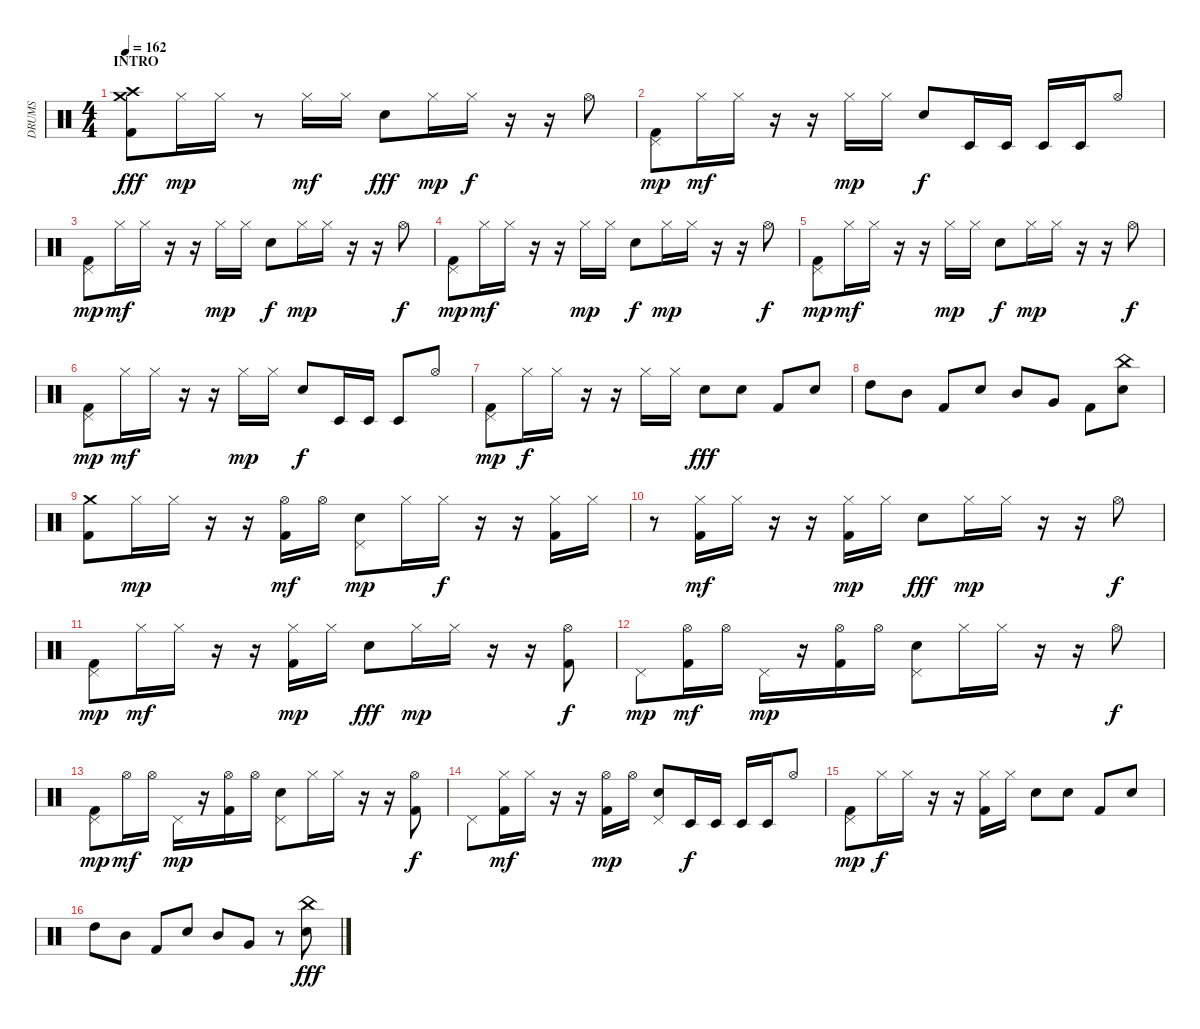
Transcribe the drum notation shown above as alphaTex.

\track ("DRUMS" "DRUMS") {instrument percussion}
\staff {score}
\articulation defaults
\ts (4 4)
\section ("" "INTRO")
\tempo 162
\clef neutral
\ks c
("Crash medium (hit)" "Crash high (hit)" "Kick (hit) 2").8{dy fff} "Hi-Hat (closed)".16{dy mp} "Hi-Hat (closed)".16 r.8 "Hi-Hat (closed)".16{dy mf} "Hi-Hat (closed)".16 "Electric Snare (hit)".8{dy fff} "Hi-Hat (closed)".16{dy mp} "Hi-Hat (closed)".16{dy f} r.16 r.16 "Hi-Hat (open)".8 |
("Pedal Hi-Hat (hit)" "Kick (hit) 2").8{dy mp} "Hi-Hat (closed)".16{dy mf} "Hi-Hat (closed)".16 r.16 r.16 "Hi-Hat (closed)".16{dy mp} "Hi-Hat (closed)".16 "Electric Snare (hit)".8{dy f} "Timbale low (hit)".16 "Timbale low (hit)".16 "Timbale low (hit)".16 "Timbale low (hit)".16 "Hi-Hat (open)".8 |
("Pedal Hi-Hat (hit)" "Kick (hit) 2").8{dy mp} "Hi-Hat (closed)".16{dy mf} "Hi-Hat (closed)".16 r.16 r.16 "Hi-Hat (closed)".16{dy mp} "Hi-Hat (closed)".16 "Electric Snare (hit)".8{dy f} "Hi-Hat (closed)".16{dy mp} "Hi-Hat (closed)".16 r.16 r.16 "Hi-Hat (open)".8{dy f} |
("Pedal Hi-Hat (hit)" "Kick (hit) 2").8{dy mp} "Hi-Hat (closed)".16{dy mf} "Hi-Hat (closed)".16 r.16 r.16 "Hi-Hat (closed)".16{dy mp} "Hi-Hat (closed)".16 "Electric Snare (hit)".8{dy f} "Hi-Hat (closed)".16{dy mp} "Hi-Hat (closed)".16 r.16 r.16 "Hi-Hat (open)".8{dy f} |
("Pedal Hi-Hat (hit)" "Kick (hit) 2").8{dy mp} "Hi-Hat (closed)".16{dy mf} "Hi-Hat (closed)".16 r.16 r.16 "Hi-Hat (closed)".16{dy mp} "Hi-Hat (closed)".16 "Electric Snare (hit)".8{dy f} "Hi-Hat (closed)".16{dy mp} "Hi-Hat (closed)".16 r.16 r.16 "Hi-Hat (open)".8{dy f} |
("Pedal Hi-Hat (hit)" "Kick (hit) 2").8{dy mp} "Hi-Hat (closed)".16{dy mf} "Hi-Hat (closed)".16 r.16 r.16 "Hi-Hat (closed)".16{dy mp} "Hi-Hat (closed)".16 "Electric Snare (hit)".8{dy f} "Timbale low (hit)".16 "Timbale low (hit)".16 "Timbale low (hit)".8 "Hi-Hat (open)".8 |
("Pedal Hi-Hat (hit)" "Kick (hit) 2").8{dy mp} "Hi-Hat (closed)".16{dy f} "Hi-Hat (closed)".16 r.16 r.16 "Hi-Hat (closed)".16 "Hi-Hat (closed)".16 "Electric Snare (hit)".8{dy fff} "Electric Snare (hit)".8 "Kick (hit) 2".8 "Electric Snare (hit)".8 |
"High Tom (hit)".8 "Mid Tom (hit)".8 "Kick (hit) 2".8 "Electric Snare (hit)".8 "Mid Tom (hit)".8 "Very Low Tom (hit)".8 "Kick (hit) 2".8 ("China (hit)" "Electric Snare (hit)").8 |
("Crash medium (hit)" "Kick (hit) 2").8 "Hi-Hat (closed)".16{dy mp} "Hi-Hat (closed)".16 r.16 r.16 ("Hi-Hat (open)" "Kick (hit) 2").16{dy mf} "Hi-Hat (open)".16 ("Electric Snare (hit)" "Pedal Hi-Hat (hit)").8{dy mp} "Hi-Hat (closed)".16 "Hi-Hat (closed)".16{dy f} r.16 r.16 ("Hi-Hat (closed)" "Kick (hit) 2").16 "Hi-Hat (closed)".16 |
r.8 ("Hi-Hat (closed)" "Kick (hit) 2").16{dy mf} "Hi-Hat (closed)".16 r.16 r.16 ("Hi-Hat (closed)" "Kick (hit) 2").16{dy mp} "Hi-Hat (closed)".16 "Electric Snare (hit)".8{dy fff} "Hi-Hat (closed)".16{dy mp} "Hi-Hat (closed)".16 r.16 r.16 "Hi-Hat (open)".8{dy f} |
("Pedal Hi-Hat (hit)" "Kick (hit) 2").8{dy mp} "Hi-Hat (closed)".16{dy mf} "Hi-Hat (closed)".16 r.16 r.16 ("Hi-Hat (closed)" "Kick (hit) 2").16{dy mp} "Hi-Hat (closed)".16 "Electric Snare (hit)".8{dy fff} "Hi-Hat (closed)".16{dy mp} "Hi-Hat (closed)".16 r.16 r.16 ("Hi-Hat (open)" "Kick (hit) 2").8{dy f} |
"Pedal Hi-Hat (hit)".8{dy mp} ("Hi-Hat (open)" "Kick (hit) 2").16{dy mf} "Hi-Hat (open)".16 "Pedal Hi-Hat (hit)".16{dy mp} r.16 ("Hi-Hat (open)" "Kick (hit) 2").16 "Hi-Hat (open)".16 ("Electric Snare (hit)" "Pedal Hi-Hat (hit)").8 "Hi-Hat (closed)".16 "Hi-Hat (closed)".16 r.16 r.16 "Hi-Hat (open)".8{dy f} |
("Pedal Hi-Hat (hit)" "Kick (hit) 2").8{dy mp} "Hi-Hat (open)".16{dy mf} "Hi-Hat (open)".16 "Pedal Hi-Hat (hit)".16{dy mp} r.16 ("Hi-Hat (open)" "Kick (hit) 2").16 "Hi-Hat (open)".16 ("Electric Snare (hit)" "Pedal Hi-Hat (hit)").8 "Hi-Hat (closed)".16 "Hi-Hat (closed)".16 r.16 r.16 ("Hi-Hat (open)" "Kick (hit) 2").8{dy f} |
"Pedal Hi-Hat (hit)".8 ("Hi-Hat (closed)" "Kick (hit) 2").16{dy mf} "Hi-Hat (closed)".16 r.16 r.16 ("Hi-Hat (open)" "Kick (hit) 2").16{dy mp} "Hi-Hat (open)".16 ("Electric Snare (hit)" "Pedal Hi-Hat (hit)").8 "Timbale low (hit)".16{dy f} "Timbale low (hit)".16 "Timbale low (hit)".16 "Timbale low (hit)".16 "Hi-Hat (open)".8 |
("Pedal Hi-Hat (hit)" "Kick (hit) 2").8{dy mp} "Hi-Hat (closed)".16{dy f} "Hi-Hat (closed)".16 r.16 r.16 ("Hi-Hat (closed)" "Kick (hit) 2").16 "Hi-Hat (closed)".16 "Electric Snare (hit)".8 "Electric Snare (hit)".8 "Kick (hit) 2".8 "Electric Snare (hit)".8 |
"High Tom (hit)".8 "Mid Tom (hit)".8 "Kick (hit) 2".8 "Electric Snare (hit)".8 "Mid Tom (hit)".8 "Very Low Tom (hit)".8 r.8 ("China (hit)" "Electric Snare (hit)").8{dy fff}
